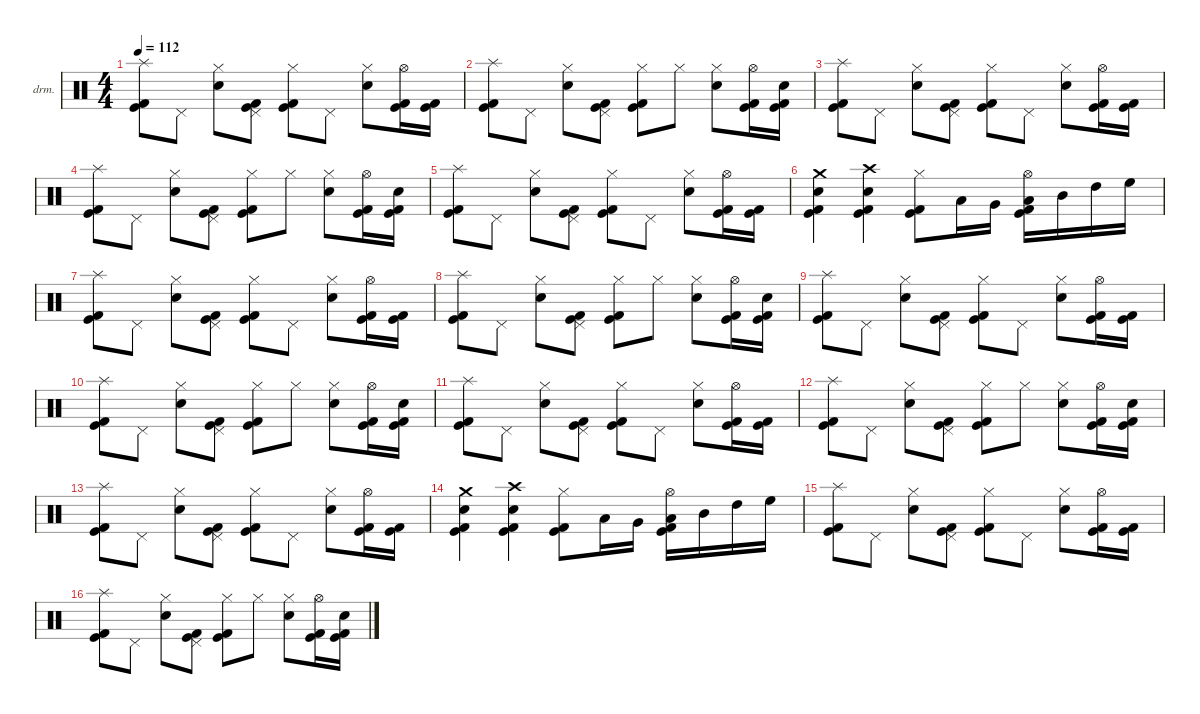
\defaultSystemsLayout 4
\hideDynamics
\bracketExtendMode nobrackets
\firstSystemTrackNameOrientation horizontal
\otherSystemsTrackNameOrientation horizontal
\track ("Drums" "drm.") {instrument percussion}
\staff {score}
\articulation defaults
\ts (4 4)
\tempo 112
\clef neutral
\ks c
("Splash (hit)" "Kick (hit) 2" "Kick (hit)").8{dy f} "Pedal Hi-Hat (hit)".8{dy ff} ("Hi-Hat (closed)" "Snare (hit) 2").8{dy f} ("Pedal Hi-Hat (hit)" "Kick (hit)" "Kick (hit) 2").8{dy ff} ("Hi-Hat (closed)" "Kick (hit)" "Kick (hit) 2").8{dy f} "Pedal Hi-Hat (hit)".8{dy ff} ("Hi-Hat (closed)" "Snare (hit) 2").8{dy f} ("Hi-Hat (open)" "Kick (hit) 2" "Kick (hit)").16 ("Kick (hit) 2" "Kick (hit)").16 |
("Splash (hit)" "Kick (hit) 2" "Kick (hit)").8 "Pedal Hi-Hat (hit)".8{dy ff} ("Hi-Hat (closed)" "Snare (hit) 2").8{dy f} ("Pedal Hi-Hat (hit)" "Kick (hit)" "Kick (hit) 2").8{dy ff} ("Hi-Hat (closed)" "Kick (hit)" "Kick (hit) 2").8{dy f} "Hi-Hat (closed)".8{dy ff} ("Hi-Hat (closed)" "Snare (hit) 2").8{dy f} ("Hi-Hat (open)" "Kick (hit) 2" "Kick (hit)").16 ("Snare (hit) 2" "Kick (hit) 2" "Kick (hit)").16 |
("Splash (hit)" "Kick (hit) 2" "Kick (hit)").8 "Pedal Hi-Hat (hit)".8{dy ff} ("Hi-Hat (closed)" "Snare (hit) 2").8{dy f} ("Pedal Hi-Hat (hit)" "Kick (hit)" "Kick (hit) 2").8{dy ff} ("Hi-Hat (closed)" "Kick (hit)" "Kick (hit) 2").8{dy f} "Pedal Hi-Hat (hit)".8{dy ff} ("Hi-Hat (closed)" "Snare (hit) 2").8{dy f} ("Hi-Hat (open)" "Kick (hit) 2" "Kick (hit)").16 ("Kick (hit) 2" "Kick (hit)").16 |
("Splash (hit)" "Kick (hit) 2" "Kick (hit)").8 "Pedal Hi-Hat (hit)".8{dy ff} ("Hi-Hat (closed)" "Snare (hit) 2").8{dy f} ("Pedal Hi-Hat (hit)" "Kick (hit)" "Kick (hit) 2").8{dy ff} ("Hi-Hat (closed)" "Kick (hit)" "Kick (hit) 2").8{dy f} "Hi-Hat (closed)".8{dy ff} ("Hi-Hat (closed)" "Snare (hit) 2").8{dy f} ("Hi-Hat (open)" "Kick (hit) 2" "Kick (hit)").16 ("Snare (hit) 2" "Kick (hit) 2" "Kick (hit)").16 |
("Splash (hit)" "Kick (hit) 2" "Kick (hit)").8 "Pedal Hi-Hat (hit)".8{dy ff} ("Hi-Hat (closed)" "Snare (hit) 2").8{dy f} ("Pedal Hi-Hat (hit)" "Kick (hit)" "Kick (hit) 2").8{dy ff} ("Hi-Hat (closed)" "Kick (hit)" "Kick (hit) 2").8{dy f} "Pedal Hi-Hat (hit)".8{dy ff} ("Hi-Hat (closed)" "Snare (hit) 2").8{dy f} ("Hi-Hat (open)" "Kick (hit) 2" "Kick (hit)").16 ("Kick (hit) 2" "Kick (hit)").16 |
("Crash medium (hit)" "Snare (hit) 2" "Kick (hit) 2" "Kick (hit)").4 ("Crash high (hit)" "Snare (hit) 2" "Kick (hit) 2" "Kick (hit)").4 ("Hi-Hat (closed)" "Kick (hit) 2" "Kick (hit)").8 "Low Tom (hit)".16 "Very Low Tom (hit)".16 ("Hi-Hat (open)" "Low Floor Tom (hit)" "Kick (hit) 2" "Kick (hit)").16 "Mid Tom (hit)".16 "High Tom (hit)".16 "High Floor Tom (hit)".16 |
("Splash (hit)" "Kick (hit) 2" "Kick (hit)").8 "Pedal Hi-Hat (hit)".8{dy ff} ("Hi-Hat (closed)" "Snare (hit) 2").8{dy f} ("Pedal Hi-Hat (hit)" "Kick (hit)" "Kick (hit) 2").8{dy ff} ("Hi-Hat (closed)" "Kick (hit)" "Kick (hit) 2").8{dy f} "Pedal Hi-Hat (hit)".8{dy ff} ("Hi-Hat (closed)" "Snare (hit) 2").8{dy f} ("Hi-Hat (open)" "Kick (hit) 2" "Kick (hit)").16 ("Kick (hit) 2" "Kick (hit)").16 |
("Splash (hit)" "Kick (hit) 2" "Kick (hit)").8 "Pedal Hi-Hat (hit)".8{dy ff} ("Hi-Hat (closed)" "Snare (hit) 2").8{dy f} ("Pedal Hi-Hat (hit)" "Kick (hit)" "Kick (hit) 2").8{dy ff} ("Hi-Hat (closed)" "Kick (hit)" "Kick (hit) 2").8{dy f} "Hi-Hat (closed)".8{dy ff} ("Hi-Hat (closed)" "Snare (hit) 2").8{dy f} ("Hi-Hat (open)" "Kick (hit) 2" "Kick (hit)").16 ("Snare (hit) 2" "Kick (hit) 2" "Kick (hit)").16 |
("Splash (hit)" "Kick (hit) 2" "Kick (hit)").8 "Pedal Hi-Hat (hit)".8{dy ff} ("Hi-Hat (closed)" "Snare (hit) 2").8{dy f} ("Pedal Hi-Hat (hit)" "Kick (hit)" "Kick (hit) 2").8{dy ff} ("Hi-Hat (closed)" "Kick (hit)" "Kick (hit) 2").8{dy f} "Pedal Hi-Hat (hit)".8{dy ff} ("Hi-Hat (closed)" "Snare (hit) 2").8{dy f} ("Hi-Hat (open)" "Kick (hit) 2" "Kick (hit)").16 ("Kick (hit) 2" "Kick (hit)").16 |
("Splash (hit)" "Kick (hit) 2" "Kick (hit)").8 "Pedal Hi-Hat (hit)".8{dy ff} ("Hi-Hat (closed)" "Snare (hit) 2").8{dy f} ("Pedal Hi-Hat (hit)" "Kick (hit)" "Kick (hit) 2").8{dy ff} ("Hi-Hat (closed)" "Kick (hit)" "Kick (hit) 2").8{dy f} "Hi-Hat (closed)".8{dy ff} ("Hi-Hat (closed)" "Snare (hit) 2").8{dy f} ("Hi-Hat (open)" "Kick (hit) 2" "Kick (hit)").16 ("Snare (hit) 2" "Kick (hit) 2" "Kick (hit)").16 |
("Splash (hit)" "Kick (hit) 2" "Kick (hit)").8 "Pedal Hi-Hat (hit)".8{dy ff} ("Hi-Hat (closed)" "Snare (hit) 2").8{dy f} ("Pedal Hi-Hat (hit)" "Kick (hit)" "Kick (hit) 2").8{dy ff} ("Hi-Hat (closed)" "Kick (hit)" "Kick (hit) 2").8{dy f} "Pedal Hi-Hat (hit)".8{dy ff} ("Hi-Hat (closed)" "Snare (hit) 2").8{dy f} ("Hi-Hat (open)" "Kick (hit) 2" "Kick (hit)").16 ("Kick (hit) 2" "Kick (hit)").16 |
("Splash (hit)" "Kick (hit) 2" "Kick (hit)").8 "Pedal Hi-Hat (hit)".8{dy ff} ("Hi-Hat (closed)" "Snare (hit) 2").8{dy f} ("Pedal Hi-Hat (hit)" "Kick (hit)" "Kick (hit) 2").8{dy ff} ("Hi-Hat (closed)" "Kick (hit)" "Kick (hit) 2").8{dy f} "Hi-Hat (closed)".8{dy ff} ("Hi-Hat (closed)" "Snare (hit) 2").8{dy f} ("Hi-Hat (open)" "Kick (hit) 2" "Kick (hit)").16 ("Snare (hit) 2" "Kick (hit) 2" "Kick (hit)").16 |
("Splash (hit)" "Kick (hit) 2" "Kick (hit)").8 "Pedal Hi-Hat (hit)".8{dy ff} ("Hi-Hat (closed)" "Snare (hit) 2").8{dy f} ("Pedal Hi-Hat (hit)" "Kick (hit)" "Kick (hit) 2").8{dy ff} ("Hi-Hat (closed)" "Kick (hit)" "Kick (hit) 2").8{dy f} "Pedal Hi-Hat (hit)".8{dy ff} ("Hi-Hat (closed)" "Snare (hit) 2").8{dy f} ("Hi-Hat (open)" "Kick (hit) 2" "Kick (hit)").16 ("Kick (hit) 2" "Kick (hit)").16 |
("Crash medium (hit)" "Snare (hit) 2" "Kick (hit) 2" "Kick (hit)").4 ("Crash high (hit)" "Snare (hit) 2" "Kick (hit) 2" "Kick (hit)").4 ("Hi-Hat (closed)" "Kick (hit) 2" "Kick (hit)").8 "Low Tom (hit)".16 "Very Low Tom (hit)".16 ("Hi-Hat (open)" "Low Floor Tom (hit)" "Kick (hit) 2" "Kick (hit)").16 "Mid Tom (hit)".16 "High Tom (hit)".16 "High Floor Tom (hit)".16 |
("Splash (hit)" "Kick (hit) 2" "Kick (hit)").8 "Pedal Hi-Hat (hit)".8{dy ff} ("Hi-Hat (closed)" "Snare (hit) 2").8{dy f} ("Pedal Hi-Hat (hit)" "Kick (hit)" "Kick (hit) 2").8{dy ff} ("Hi-Hat (closed)" "Kick (hit)" "Kick (hit) 2").8{dy f} "Pedal Hi-Hat (hit)".8{dy ff} ("Hi-Hat (closed)" "Snare (hit) 2").8{dy f} ("Hi-Hat (open)" "Kick (hit) 2" "Kick (hit)").16 ("Kick (hit) 2" "Kick (hit)").16 |
("Splash (hit)" "Kick (hit) 2" "Kick (hit)").8 "Pedal Hi-Hat (hit)".8{dy ff} ("Hi-Hat (closed)" "Snare (hit) 2").8{dy f} ("Pedal Hi-Hat (hit)" "Kick (hit)" "Kick (hit) 2").8{dy ff} ("Hi-Hat (closed)" "Kick (hit)" "Kick (hit) 2").8{dy f} "Hi-Hat (closed)".8{dy ff} ("Hi-Hat (closed)" "Snare (hit) 2").8{dy f} ("Hi-Hat (open)" "Kick (hit) 2" "Kick (hit)").16 ("Snare (hit) 2" "Kick (hit) 2" "Kick (hit)").16
